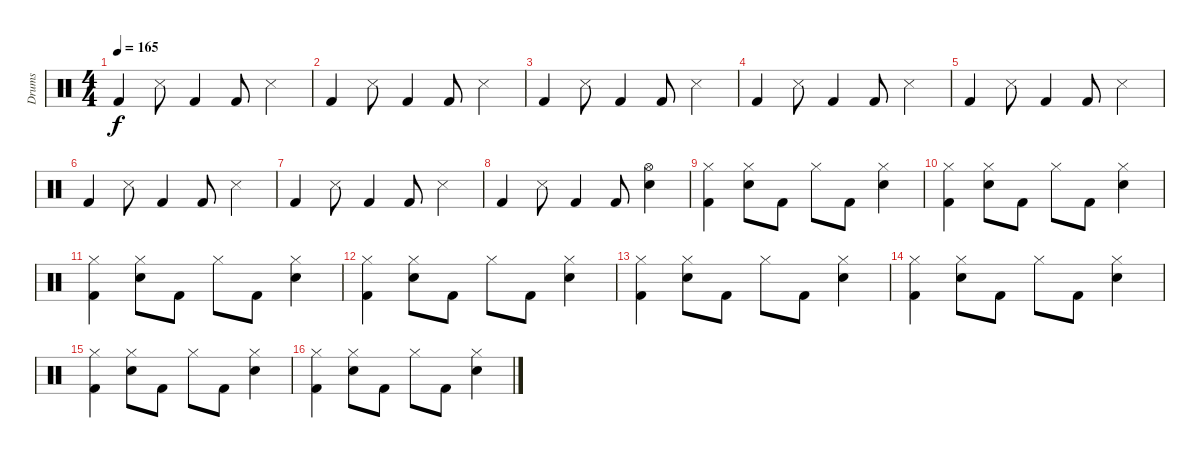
\track ("Drums" "Drums") {instrument percussion}
\staff {score}
\articulation defaults
\ts (4 4)
\tempo 165
\clef neutral
\ks c "Kick (hit) 2".4{dy f} "Snare (side stick) 3".8 "Kick (hit) 2".4 "Kick (hit) 2".8 "Snare (side stick) 3".4
|
"Kick (hit) 2".4 "Snare (side stick) 3".8 "Kick (hit) 2".4 "Kick (hit) 2".8 "Snare (side stick) 3".4 |
"Kick (hit) 2".4 "Snare (side stick) 3".8 "Kick (hit) 2".4 "Kick (hit) 2".8 "Snare (side stick) 3".4 |
"Kick (hit) 2".4 "Snare (side stick) 3".8 "Kick (hit) 2".4 "Kick (hit) 2".8 "Snare (side stick) 3".4 |
"Kick (hit) 2".4 "Snare (side stick) 3".8 "Kick (hit) 2".4 "Kick (hit) 2".8 "Snare (side stick) 3".4 |
"Kick (hit) 2".4 "Snare (side stick) 3".8 "Kick (hit) 2".4 "Kick (hit) 2".8 "Snare (side stick) 3".4 |
"Kick (hit) 2".4 "Snare (side stick) 3".8 "Kick (hit) 2".4 "Kick (hit) 2".8 "Snare (side stick) 3".4 |
"Kick (hit) 2".4 "Snare (side stick) 3".8 "Kick (hit) 2".4 "Kick (hit) 2".8 ("Hi-Hat (open)" "Electric Snare (hit)").4 |
("Hi-Hat (closed)" "Kick (hit) 2").4 ("Hi-Hat (closed)" "Electric Snare (hit)").8 "Kick (hit) 2".8 "Hi-Hat (closed)".8 "Kick (hit) 2".8 ("Hi-Hat (closed)" "Electric Snare (hit)").4 |
("Hi-Hat (closed)" "Kick (hit) 2").4 ("Hi-Hat (closed)" "Electric Snare (hit)").8 "Kick (hit) 2".8 "Hi-Hat (closed)".8 "Kick (hit) 2".8 ("Hi-Hat (closed)" "Electric Snare (hit)").4 |
("Hi-Hat (closed)" "Kick (hit) 2").4 ("Hi-Hat (closed)" "Electric Snare (hit)").8 "Kick (hit) 2".8 "Hi-Hat (closed)".8 "Kick (hit) 2".8 ("Hi-Hat (closed)" "Electric Snare (hit)").4 |
("Hi-Hat (closed)" "Kick (hit) 2").4 ("Hi-Hat (closed)" "Electric Snare (hit)").8 "Kick (hit) 2".8 "Hi-Hat (closed)".8 "Kick (hit) 2".8 ("Hi-Hat (closed)" "Electric Snare (hit)").4 |
("Hi-Hat (closed)" "Kick (hit) 2").4 ("Hi-Hat (closed)" "Electric Snare (hit)").8 "Kick (hit) 2".8 "Hi-Hat (closed)".8 "Kick (hit) 2".8 ("Hi-Hat (closed)" "Electric Snare (hit)").4 |
("Hi-Hat (closed)" "Kick (hit) 2").4 ("Hi-Hat (closed)" "Electric Snare (hit)").8 "Kick (hit) 2".8 "Hi-Hat (closed)".8 "Kick (hit) 2".8 ("Hi-Hat (closed)" "Electric Snare (hit)").4 |
("Hi-Hat (closed)" "Kick (hit) 2").4 ("Hi-Hat (closed)" "Electric Snare (hit)").8 "Kick (hit) 2".8 "Hi-Hat (closed)".8 "Kick (hit) 2".8 ("Hi-Hat (closed)" "Electric Snare (hit)").4 |
("Hi-Hat (closed)" "Kick (hit) 2").4 ("Hi-Hat (closed)" "Electric Snare (hit)").8 "Kick (hit) 2".8 "Hi-Hat (closed)".8 "Kick (hit) 2".8 ("Hi-Hat (closed)" "Electric Snare (hit)").4
